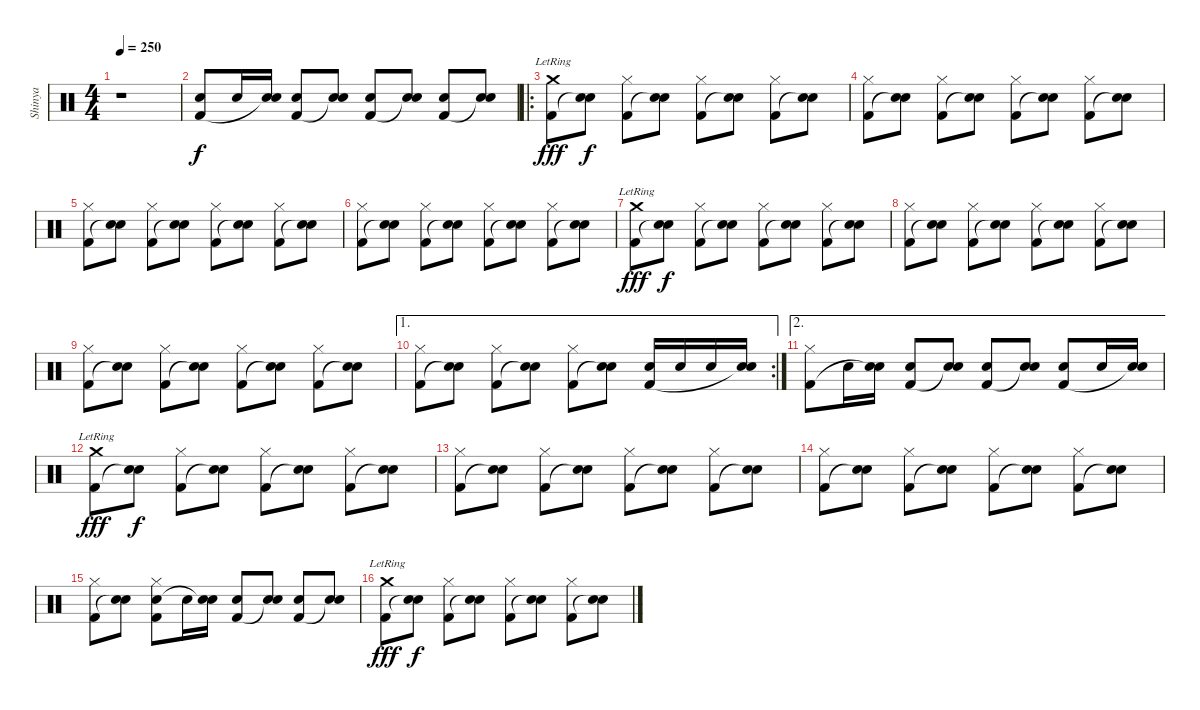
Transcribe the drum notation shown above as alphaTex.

\track ("Shinya" "Shinya") {instrument percussion}
\staff {score}
\articulation defaults
\ts (4 4)
\tempo 250
\clef neutral
\ks c
r.1{dy fff} |
("Electric Snare (hit)" "Kick (hit) 2").8{dy f} "Electric Snare (hit)".16 ("Electric Snare (hit)" "Snare (hit)"{t}).16 ("Electric Snare (hit)" "Kick (hit) 2").8 ("Electric Snare (hit)" "Snare (hit)"{t}).8 ("Electric Snare (hit)" "Kick (hit) 2").8 ("Electric Snare (hit)" "Snare (hit)"{t}).8 ("Electric Snare (hit)" "Kick (hit) 2").8 ("Electric Snare (hit)" "Snare (hit)"{t}).8 |
\ro
("Crash medium (hit)"{lr} "Kick (hit) 2").8{dy fff} ("Electric Snare (hit)" "Snare (hit)"{t}).8{dy f} ("Hi-Hat (closed)" "Kick (hit) 2").8 ("Electric Snare (hit)" "Snare (hit)"{t}).8 ("Hi-Hat (closed)" "Kick (hit) 2").8 ("Electric Snare (hit)" "Snare (hit)"{t}).8 ("Hi-Hat (closed)" "Kick (hit) 2").8 ("Electric Snare (hit)" "Snare (hit)"{t}).8 |
("Hi-Hat (closed)" "Kick (hit) 2").8 ("Electric Snare (hit)" "Snare (hit)"{t}).8 ("Hi-Hat (closed)" "Kick (hit) 2").8 ("Electric Snare (hit)" "Snare (hit)"{t}).8 ("Hi-Hat (closed)" "Kick (hit) 2").8 ("Electric Snare (hit)" "Snare (hit)"{t}).8 ("Hi-Hat (closed)" "Kick (hit) 2").8 ("Electric Snare (hit)" "Snare (hit)"{t}).8 |
("Hi-Hat (closed)" "Kick (hit) 2").8 ("Electric Snare (hit)" "Snare (hit)"{t}).8 ("Hi-Hat (closed)" "Kick (hit) 2").8 ("Electric Snare (hit)" "Snare (hit)"{t}).8 ("Hi-Hat (closed)" "Kick (hit) 2").8 ("Electric Snare (hit)" "Snare (hit)"{t}).8 ("Hi-Hat (closed)" "Kick (hit) 2").8 ("Electric Snare (hit)" "Snare (hit)"{t}).8 |
("Hi-Hat (closed)" "Kick (hit) 2").8 ("Electric Snare (hit)" "Snare (hit)"{t}).8 ("Hi-Hat (closed)" "Kick (hit) 2").8 ("Electric Snare (hit)" "Snare (hit)"{t}).8 ("Hi-Hat (closed)" "Kick (hit) 2").8 ("Electric Snare (hit)" "Snare (hit)"{t}).8 ("Hi-Hat (closed)" "Kick (hit) 2").8 ("Electric Snare (hit)" "Snare (hit)"{t}).8 |
("Crash medium (hit)"{lr} "Kick (hit) 2").8{dy fff} ("Electric Snare (hit)" "Snare (hit)"{t}).8{dy f} ("Hi-Hat (closed)" "Kick (hit) 2").8 ("Electric Snare (hit)" "Snare (hit)"{t}).8 ("Hi-Hat (closed)" "Kick (hit) 2").8 ("Electric Snare (hit)" "Snare (hit)"{t}).8 ("Hi-Hat (closed)" "Kick (hit) 2").8 ("Electric Snare (hit)" "Snare (hit)"{t}).8 |
("Hi-Hat (closed)" "Kick (hit) 2").8 ("Electric Snare (hit)" "Snare (hit)"{t}).8 ("Hi-Hat (closed)" "Kick (hit) 2").8 ("Electric Snare (hit)" "Snare (hit)"{t}).8 ("Hi-Hat (closed)" "Kick (hit) 2").8 ("Electric Snare (hit)" "Snare (hit)"{t}).8 ("Hi-Hat (closed)" "Kick (hit) 2").8 ("Electric Snare (hit)" "Snare (hit)"{t}).8 |
("Hi-Hat (closed)" "Kick (hit) 2").8 ("Electric Snare (hit)" "Snare (hit)"{t}).8 ("Hi-Hat (closed)" "Kick (hit) 2").8 ("Electric Snare (hit)" "Snare (hit)"{t}).8 ("Hi-Hat (closed)" "Kick (hit) 2").8 ("Electric Snare (hit)" "Snare (hit)"{t}).8 ("Hi-Hat (closed)" "Kick (hit) 2").8 ("Electric Snare (hit)" "Snare (hit)"{t}).8 |
\ae 1
\rc 2
("Hi-Hat (closed)" "Kick (hit) 2").8 ("Electric Snare (hit)" "Snare (hit)"{t}).8 ("Hi-Hat (closed)" "Kick (hit) 2").8 ("Electric Snare (hit)" "Snare (hit)"{t}).8 ("Hi-Hat (closed)" "Kick (hit) 2").8 ("Electric Snare (hit)" "Snare (hit)"{t}).8 ("Electric Snare (hit)" "Kick (hit) 2").16 "Electric Snare (hit)".16 "Electric Snare (hit)".16 ("Electric Snare (hit)" "Snare (hit)"{t}).16 |
\ae 2
("Hi-Hat (closed)" "Kick (hit) 2").8 "Electric Snare (hit)".16 ("Electric Snare (hit)" "Snare (hit)"{t}).16 ("Electric Snare (hit)" "Kick (hit) 2").8 ("Electric Snare (hit)" "Snare (hit)"{t}).8 ("Electric Snare (hit)" "Kick (hit) 2").8 ("Electric Snare (hit)" "Snare (hit)"{t}).8 ("Electric Snare (hit)" "Kick (hit) 2").8 "Electric Snare (hit)".16 ("Electric Snare (hit)" "Snare (hit)"{t}).16 |
("Crash medium (hit)"{lr} "Kick (hit) 2").8{dy fff} ("Electric Snare (hit)" "Snare (hit)"{t}).8{dy f} ("Hi-Hat (closed)" "Kick (hit) 2").8 ("Electric Snare (hit)" "Snare (hit)"{t}).8 ("Hi-Hat (closed)" "Kick (hit) 2").8 ("Electric Snare (hit)" "Snare (hit)"{t}).8 ("Hi-Hat (closed)" "Kick (hit) 2").8 ("Electric Snare (hit)" "Snare (hit)"{t}).8 |
("Hi-Hat (closed)" "Kick (hit) 2").8 ("Electric Snare (hit)" "Snare (hit)"{t}).8 ("Hi-Hat (closed)" "Kick (hit) 2").8 ("Electric Snare (hit)" "Snare (hit)"{t}).8 ("Hi-Hat (closed)" "Kick (hit) 2").8 ("Electric Snare (hit)" "Snare (hit)"{t}).8 ("Hi-Hat (closed)" "Kick (hit) 2").8 ("Electric Snare (hit)" "Snare (hit)"{t}).8 |
("Hi-Hat (closed)" "Kick (hit) 2").8 ("Electric Snare (hit)" "Snare (hit)"{t}).8 ("Hi-Hat (closed)" "Kick (hit) 2").8 ("Electric Snare (hit)" "Snare (hit)"{t}).8 ("Hi-Hat (closed)" "Kick (hit) 2").8 ("Electric Snare (hit)" "Snare (hit)"{t}).8 ("Hi-Hat (closed)" "Kick (hit) 2").8 ("Electric Snare (hit)" "Snare (hit)"{t}).8 |
("Hi-Hat (closed)" "Kick (hit) 2").8 ("Electric Snare (hit)" "Snare (hit)"{t}).8 ("Hi-Hat (closed)" "Electric Snare (hit)" "Kick (hit) 2").8 "Electric Snare (hit)".16 ("Electric Snare (hit)" "Snare (hit)"{t}).16 ("Electric Snare (hit)" "Kick (hit) 2").8 ("Electric Snare (hit)" "Snare (hit)"{t}).8 ("Electric Snare (hit)" "Kick (hit) 2").8 ("Electric Snare (hit)" "Snare (hit)"{t}).8 |
("Crash medium (hit)"{lr} "Kick (hit) 2").8{dy fff} ("Electric Snare (hit)" "Snare (hit)"{t}).8{dy f} ("Hi-Hat (closed)" "Kick (hit) 2").8 ("Electric Snare (hit)" "Snare (hit)"{t}).8 ("Hi-Hat (closed)" "Kick (hit) 2").8 ("Electric Snare (hit)" "Snare (hit)"{t}).8 ("Hi-Hat (closed)" "Kick (hit) 2").8 ("Electric Snare (hit)" "Snare (hit)"{t}).8
